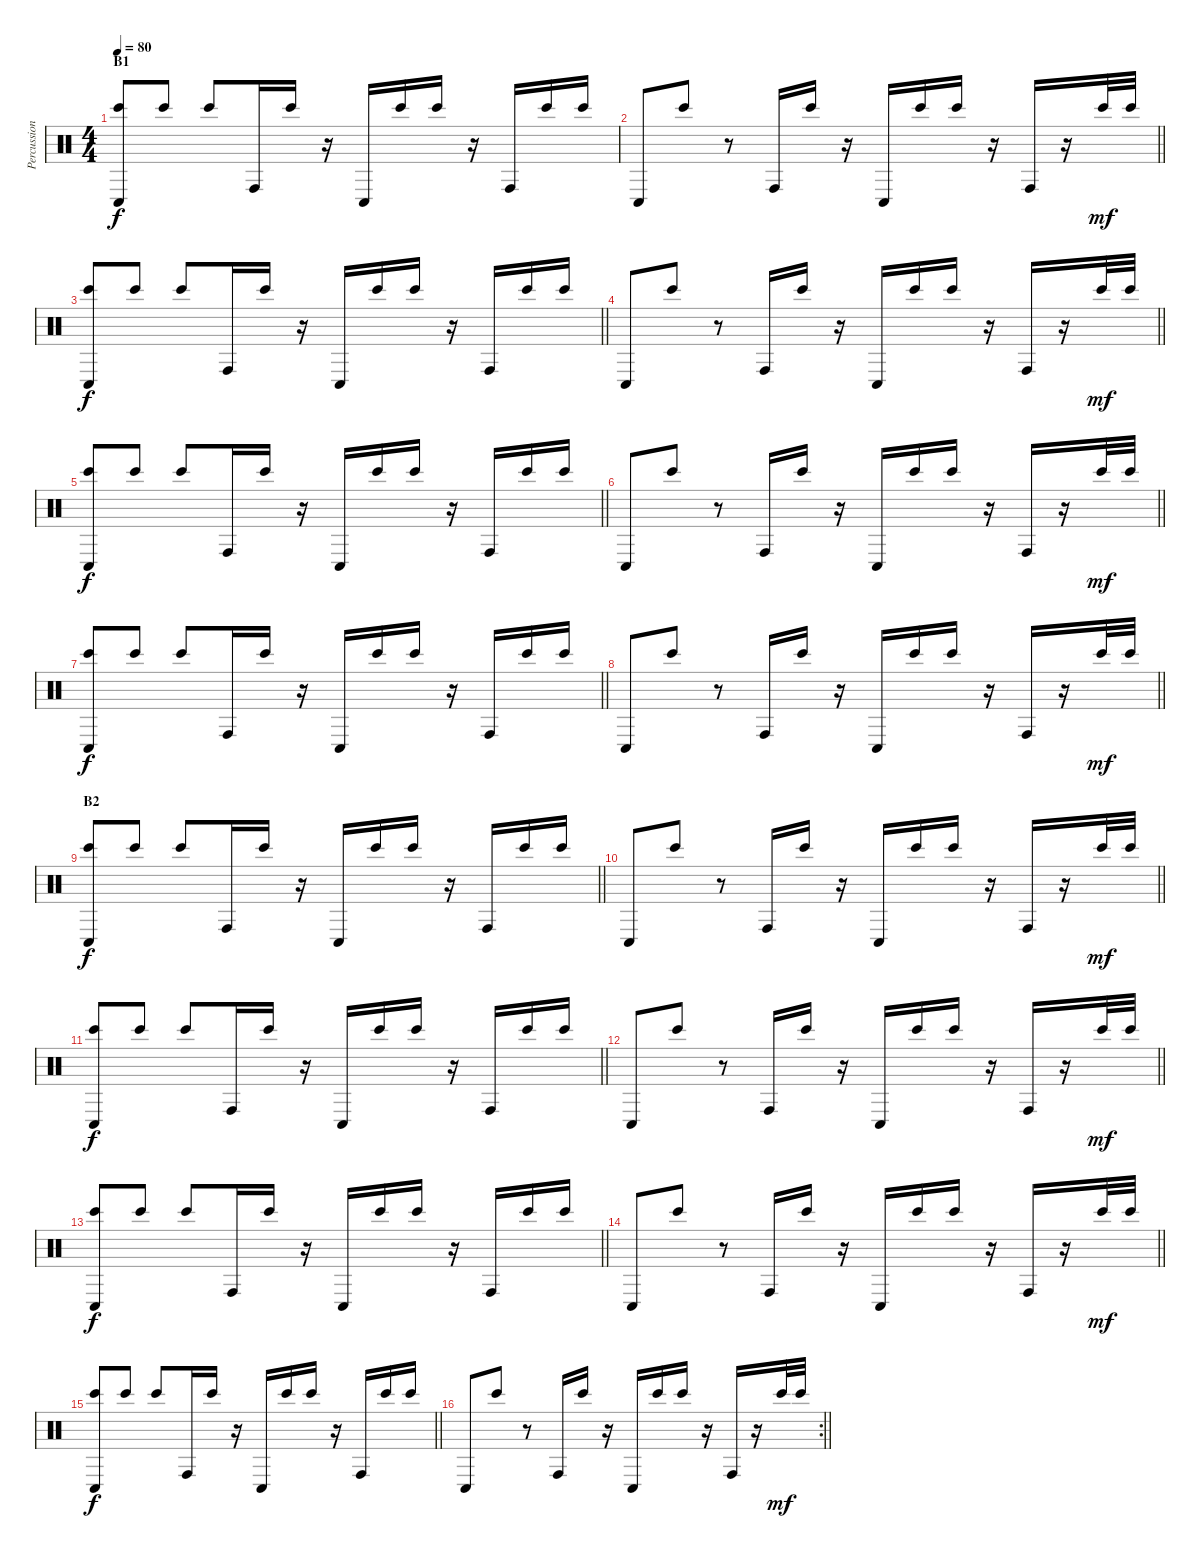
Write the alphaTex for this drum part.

\track ("Percussion" "Percussion") {instrument percussion}
\staff {score}
\articulation defaults
\ts (4 4)
\section ("" "B1")
\tempo 80
\clef neutral
\ks c
("Conga low (hit)" "Bongo High (hit)").8{dy f} "Bongo High (hit)".8 "Bongo High (hit)".8 "Conga high (hit)".16 "Bongo High (hit)".16 r.16 "Conga low (hit)".16 "Bongo High (hit)".16 "Bongo High (hit)".16 r.16 "Conga high (hit)".16 "Bongo High (hit)".16 "Bongo High (hit)".16 |
\barLineRight lightlight "Conga low (hit)".8 "Bongo High (hit)".8
r.8 "Conga high (hit)".16 "Bongo High (hit)".16 r.16 "Conga low (hit)".16 "Bongo High (hit)".16 "Bongo High (hit)".16 r.16 "Conga high (hit)".16 r.16 "Bongo High (hit)".32{dy mf} "Bongo High (hit)".32 |
\barLineRight lightlight
("Conga low (hit)" "Bongo High (hit)").8{dy f} "Bongo High (hit)".8 "Bongo High (hit)".8 "Conga high (hit)".16 "Bongo High (hit)".16 r.16 "Conga low (hit)".16 "Bongo High (hit)".16 "Bongo High (hit)".16 r.16 "Conga high (hit)".16 "Bongo High (hit)".16 "Bongo High (hit)".16 |
\barLineRight lightlight "Conga low (hit)".8 "Bongo High (hit)".8
r.8 "Conga high (hit)".16 "Bongo High (hit)".16 r.16 "Conga low (hit)".16 "Bongo High (hit)".16 "Bongo High (hit)".16 r.16 "Conga high (hit)".16 r.16 "Bongo High (hit)".32{dy mf} "Bongo High (hit)".32 |
\barLineRight lightlight
("Conga low (hit)" "Bongo High (hit)").8{dy f} "Bongo High (hit)".8 "Bongo High (hit)".8 "Conga high (hit)".16 "Bongo High (hit)".16 r.16 "Conga low (hit)".16 "Bongo High (hit)".16 "Bongo High (hit)".16 r.16 "Conga high (hit)".16 "Bongo High (hit)".16 "Bongo High (hit)".16 |
\barLineRight lightlight "Conga low (hit)".8 "Bongo High (hit)".8
r.8 "Conga high (hit)".16 "Bongo High (hit)".16 r.16 "Conga low (hit)".16 "Bongo High (hit)".16 "Bongo High (hit)".16 r.16 "Conga high (hit)".16 r.16 "Bongo High (hit)".32{dy mf} "Bongo High (hit)".32 |
\barLineRight lightlight
("Conga low (hit)" "Bongo High (hit)").8{dy f} "Bongo High (hit)".8 "Bongo High (hit)".8 "Conga high (hit)".16 "Bongo High (hit)".16 r.16 "Conga low (hit)".16 "Bongo High (hit)".16 "Bongo High (hit)".16 r.16 "Conga high (hit)".16 "Bongo High (hit)".16 "Bongo High (hit)".16 |
\barLineRight lightlight "Conga low (hit)".8 "Bongo High (hit)".8
r.8 "Conga high (hit)".16 "Bongo High (hit)".16 r.16 "Conga low (hit)".16 "Bongo High (hit)".16 "Bongo High (hit)".16 r.16 "Conga high (hit)".16 r.16 "Bongo High (hit)".32{dy mf} "Bongo High (hit)".32 |
\section ("" "B2")
\barLineRight lightlight
("Conga low (hit)" "Bongo High (hit)").8{dy f} "Bongo High (hit)".8 "Bongo High (hit)".8 "Conga high (hit)".16 "Bongo High (hit)".16 r.16 "Conga low (hit)".16 "Bongo High (hit)".16 "Bongo High (hit)".16 r.16 "Conga high (hit)".16 "Bongo High (hit)".16 "Bongo High (hit)".16 |
\barLineRight lightlight "Conga low (hit)".8 "Bongo High (hit)".8
r.8 "Conga high (hit)".16 "Bongo High (hit)".16 r.16 "Conga low (hit)".16 "Bongo High (hit)".16 "Bongo High (hit)".16 r.16 "Conga high (hit)".16 r.16 "Bongo High (hit)".32{dy mf} "Bongo High (hit)".32 |
\barLineRight lightlight
("Conga low (hit)" "Bongo High (hit)").8{dy f} "Bongo High (hit)".8 "Bongo High (hit)".8 "Conga high (hit)".16 "Bongo High (hit)".16 r.16 "Conga low (hit)".16 "Bongo High (hit)".16 "Bongo High (hit)".16 r.16 "Conga high (hit)".16 "Bongo High (hit)".16 "Bongo High (hit)".16 |
\barLineRight lightlight "Conga low (hit)".8 "Bongo High (hit)".8
r.8 "Conga high (hit)".16 "Bongo High (hit)".16 r.16 "Conga low (hit)".16 "Bongo High (hit)".16 "Bongo High (hit)".16 r.16 "Conga high (hit)".16 r.16 "Bongo High (hit)".32{dy mf} "Bongo High (hit)".32 |
\barLineRight lightlight
("Conga low (hit)" "Bongo High (hit)").8{dy f} "Bongo High (hit)".8 "Bongo High (hit)".8 "Conga high (hit)".16 "Bongo High (hit)".16 r.16 "Conga low (hit)".16 "Bongo High (hit)".16 "Bongo High (hit)".16 r.16 "Conga high (hit)".16 "Bongo High (hit)".16 "Bongo High (hit)".16 |
\barLineRight lightlight "Conga low (hit)".8 "Bongo High (hit)".8
r.8 "Conga high (hit)".16 "Bongo High (hit)".16 r.16 "Conga low (hit)".16 "Bongo High (hit)".16 "Bongo High (hit)".16 r.16 "Conga high (hit)".16 r.16 "Bongo High (hit)".32{dy mf} "Bongo High (hit)".32 |
\barLineRight lightlight
("Conga low (hit)" "Bongo High (hit)").8{dy f} "Bongo High (hit)".8 "Bongo High (hit)".8 "Conga high (hit)".16 "Bongo High (hit)".16 r.16 "Conga low (hit)".16 "Bongo High (hit)".16 "Bongo High (hit)".16 r.16 "Conga high (hit)".16 "Bongo High (hit)".16 "Bongo High (hit)".16 |
\rc 2
\barLineRight lightlight "Conga low (hit)".8 "Bongo High (hit)".8
r.8 "Conga high (hit)".16 "Bongo High (hit)".16 r.16 "Conga low (hit)".16 "Bongo High (hit)".16 "Bongo High (hit)".16 r.16 "Conga high (hit)".16 r.16 "Bongo High (hit)".32{dy mf} "Bongo High (hit)".32
